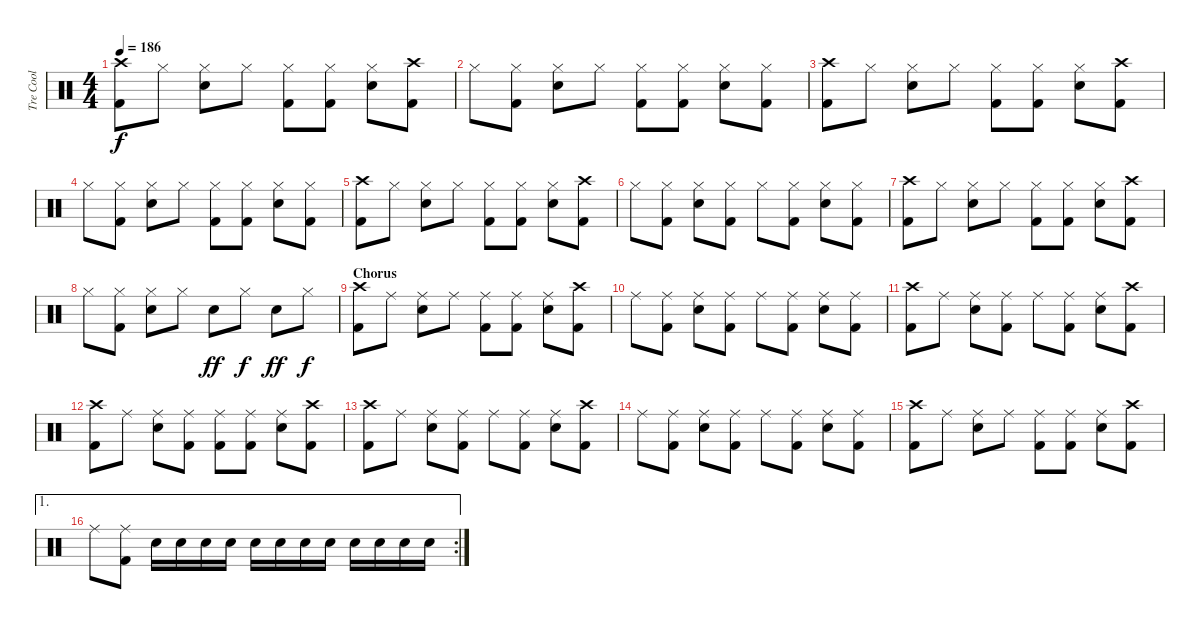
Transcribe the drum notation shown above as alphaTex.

\track ("Tre Cool" "Tre Cool") {instrument percussion}
\staff {score}
\articulation defaults
\ts (4 4)
\tempo 186
\clef neutral
\ks c
("Crash high (hit)" "Kick (hit) 2").8{dy f} "Hi-Hat (closed)".8 ("Hi-Hat (closed)" "Electric Snare (hit)").8 "Hi-Hat (closed)".8 ("Hi-Hat (closed)" "Kick (hit) 2").8 ("Hi-Hat (closed)" "Kick (hit) 2").8 ("Hi-Hat (closed)" "Electric Snare (hit)").8 ("Crash high (hit)" "Kick (hit) 2").8 |
"Hi-Hat (closed)".8 ("Hi-Hat (closed)" "Kick (hit) 2").8 ("Hi-Hat (closed)" "Electric Snare (hit)").8 "Hi-Hat (closed)".8 ("Hi-Hat (closed)" "Kick (hit) 2").8 ("Hi-Hat (closed)" "Kick (hit) 2").8 ("Hi-Hat (closed)" "Electric Snare (hit)").8 ("Hi-Hat (closed)" "Kick (hit) 2").8 |
("Crash high (hit)" "Kick (hit) 2").8 "Hi-Hat (closed)".8 ("Hi-Hat (closed)" "Electric Snare (hit)").8 "Hi-Hat (closed)".8 ("Hi-Hat (closed)" "Kick (hit) 2").8 ("Hi-Hat (closed)" "Kick (hit) 2").8 ("Hi-Hat (closed)" "Electric Snare (hit)").8 ("Crash high (hit)" "Kick (hit) 2").8 |
"Hi-Hat (closed)".8 ("Hi-Hat (closed)" "Kick (hit) 2").8 ("Hi-Hat (closed)" "Electric Snare (hit)").8 "Hi-Hat (closed)".8 ("Hi-Hat (closed)" "Kick (hit) 2").8 ("Hi-Hat (closed)" "Kick (hit) 2").8 ("Hi-Hat (closed)" "Electric Snare (hit)").8 ("Hi-Hat (closed)" "Kick (hit) 2").8 |
("Crash high (hit)" "Kick (hit) 2").8 "Hi-Hat (closed)".8 ("Hi-Hat (closed)" "Electric Snare (hit)").8 "Hi-Hat (closed)".8 ("Hi-Hat (closed)" "Kick (hit) 2").8 ("Hi-Hat (closed)" "Kick (hit) 2").8 ("Hi-Hat (closed)" "Electric Snare (hit)").8 ("Crash high (hit)" "Kick (hit) 2").8 |
"Hi-Hat (closed)".8 ("Hi-Hat (closed)" "Kick (hit) 2").8 ("Hi-Hat (closed)" "Electric Snare (hit)").8 ("Hi-Hat (closed)" "Kick (hit) 2").8 "Hi-Hat (closed)".8 ("Hi-Hat (closed)" "Kick (hit) 2").8 ("Hi-Hat (closed)" "Electric Snare (hit)").8 ("Hi-Hat (closed)" "Kick (hit) 2").8 |
("Crash high (hit)" "Kick (hit) 2").8 "Hi-Hat (closed)".8 ("Hi-Hat (closed)" "Electric Snare (hit)").8 "Hi-Hat (closed)".8 ("Hi-Hat (closed)" "Kick (hit) 2").8 ("Hi-Hat (closed)" "Kick (hit) 2").8 ("Hi-Hat (closed)" "Electric Snare (hit)").8 ("Crash high (hit)" "Kick (hit) 2").8 |
"Hi-Hat (closed)".8 ("Hi-Hat (closed)" "Kick (hit) 2").8 ("Hi-Hat (closed)" "Electric Snare (hit)").8 "Hi-Hat (closed)".8 "Electric Snare (hit)".8{dy ff} "Hi-Hat (closed)".8{dy f} "Electric Snare (hit)".8{dy ff} "Hi-Hat (closed)".8{dy f} |
\section ("" "Chorus")
("Crash high (hit)" "Kick (hit) 2").8 "Ride (middle)".8 ("Ride (middle)" "Electric Snare (hit)").8 "Ride (middle)".8 ("Ride (middle)" "Kick (hit) 2").8 ("Ride (middle)" "Kick (hit) 2").8 ("Ride (middle)" "Electric Snare (hit)").8 ("Crash high (hit)" "Kick (hit) 2").8 |
"Ride (middle)".8 ("Ride (middle)" "Kick (hit) 2").8 ("Ride (middle)" "Electric Snare (hit)").8 ("Ride (middle)" "Kick (hit) 2").8 "Ride (middle)".8 ("Ride (middle)" "Kick (hit) 2").8 ("Ride (middle)" "Electric Snare (hit)").8 ("Ride (middle)" "Kick (hit) 2").8 |
("Crash high (hit)" "Kick (hit) 2").8 "Ride (middle)".8 ("Ride (middle)" "Electric Snare (hit)").8 ("Ride (middle)" "Kick (hit) 2").8 "Ride (middle)".8 ("Ride (middle)" "Kick (hit) 2").8 ("Ride (middle)" "Electric Snare (hit)").8 ("Crash high (hit)" "Kick (hit) 2").8 |
("Crash high (hit)" "Kick (hit) 2").8 "Ride (middle)".8 ("Ride (middle)" "Electric Snare (hit)").8 ("Ride (middle)" "Kick (hit) 2").8 ("Ride (middle)" "Kick (hit) 2").8 ("Ride (middle)" "Kick (hit) 2").8 ("Ride (middle)" "Electric Snare (hit)").8 ("Crash high (hit)" "Kick (hit) 2").8 |
("Crash high (hit)" "Kick (hit) 2").8 "Ride (middle)".8 ("Ride (middle)" "Electric Snare (hit)").8 ("Ride (middle)" "Kick (hit) 2").8 "Ride (middle)".8 ("Ride (middle)" "Kick (hit) 2").8 ("Ride (middle)" "Electric Snare (hit)").8 ("Crash high (hit)" "Kick (hit) 2").8 |
"Ride (middle)".8 ("Ride (middle)" "Kick (hit) 2").8 ("Ride (middle)" "Electric Snare (hit)").8 ("Ride (middle)" "Kick (hit) 2").8 "Ride (middle)".8 ("Ride (middle)" "Kick (hit) 2").8 ("Ride (middle)" "Electric Snare (hit)").8 ("Ride (middle)" "Kick (hit) 2").8 |
("Crash high (hit)" "Kick (hit) 2").8 "Ride (middle)".8 ("Ride (middle)" "Electric Snare (hit)").8 "Ride (middle)".8 ("Ride (middle)" "Kick (hit) 2").8 ("Ride (middle)" "Kick (hit) 2").8 ("Ride (middle)" "Electric Snare (hit)").8 ("Crash high (hit)" "Kick (hit) 2").8 |
\ae 1
\rc 2 "Ride (middle)".8
("Ride (middle)" "Kick (hit) 2").8 "Electric Snare (hit)".16 "Electric Snare (hit)".16 "Electric Snare (hit)".16 "Electric Snare (hit)".16 "Electric Snare (hit)".16 "Electric Snare (hit)".16 "Electric Snare (hit)".16 "Electric Snare (hit)".16 "Electric Snare (hit)".16 "Electric Snare (hit)".16 "Electric Snare (hit)".16 "Electric Snare (hit)".16
